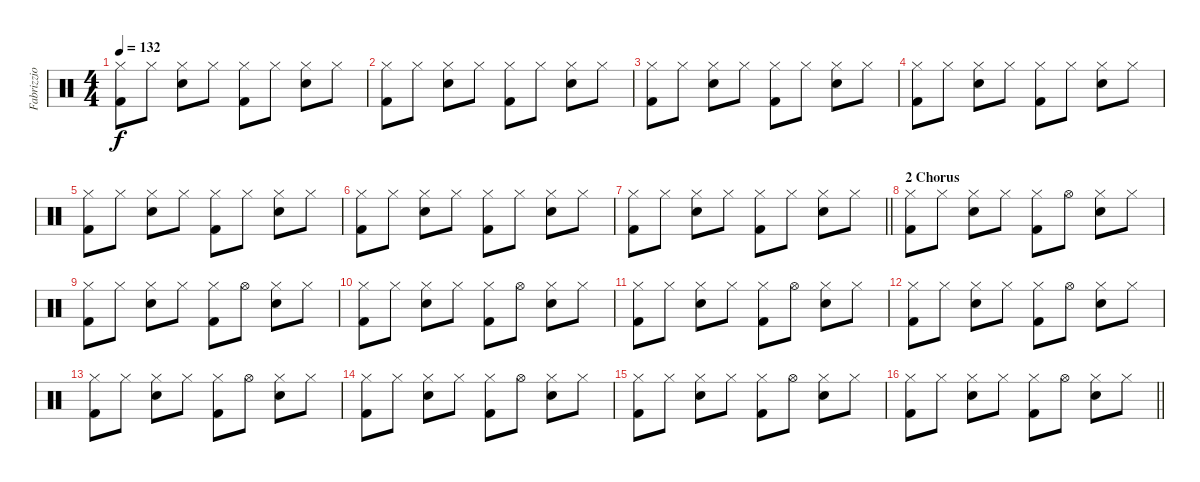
\track ("Fabrizzio" "Fabrizzio") {instrument percussion}
\staff {score}
\articulation defaults
\ts (4 4)
\tempo 132
\clef neutral
\ks c
("Hi-Hat (closed)" "Kick (hit) 2").8{dy f} "Hi-Hat (closed)".8 ("Hi-Hat (closed)" "Snare (hit) 2").8 "Hi-Hat (closed)".8 ("Hi-Hat (closed)" "Kick (hit) 2").8 "Hi-Hat (closed)".8 ("Hi-Hat (closed)" "Snare (hit) 2").8 "Hi-Hat (closed)".8 |
("Hi-Hat (closed)" "Kick (hit) 2").8 "Hi-Hat (closed)".8 ("Hi-Hat (closed)" "Snare (hit) 2").8 "Hi-Hat (closed)".8 ("Hi-Hat (closed)" "Kick (hit) 2").8 "Hi-Hat (closed)".8 ("Hi-Hat (closed)" "Snare (hit) 2").8 "Hi-Hat (closed)".8 |
("Hi-Hat (closed)" "Kick (hit) 2").8 "Hi-Hat (closed)".8 ("Hi-Hat (closed)" "Snare (hit) 2").8 "Hi-Hat (closed)".8 ("Hi-Hat (closed)" "Kick (hit) 2").8 "Hi-Hat (closed)".8 ("Hi-Hat (closed)" "Snare (hit) 2").8 "Hi-Hat (closed)".8 |
("Hi-Hat (closed)" "Kick (hit) 2").8 "Hi-Hat (closed)".8 ("Hi-Hat (closed)" "Snare (hit) 2").8 "Hi-Hat (closed)".8 ("Hi-Hat (closed)" "Kick (hit) 2").8 "Hi-Hat (closed)".8 ("Hi-Hat (closed)" "Snare (hit) 2").8 "Hi-Hat (closed)".8 |
("Hi-Hat (closed)" "Kick (hit) 2").8 "Hi-Hat (closed)".8 ("Hi-Hat (closed)" "Snare (hit) 2").8 "Hi-Hat (closed)".8 ("Hi-Hat (closed)" "Kick (hit) 2").8 "Hi-Hat (closed)".8 ("Hi-Hat (closed)" "Snare (hit) 2").8 "Hi-Hat (closed)".8 |
("Hi-Hat (closed)" "Kick (hit) 2").8 "Hi-Hat (closed)".8 ("Hi-Hat (closed)" "Snare (hit) 2").8 "Hi-Hat (closed)".8 ("Hi-Hat (closed)" "Kick (hit) 2").8 "Hi-Hat (closed)".8 ("Hi-Hat (closed)" "Snare (hit) 2").8 "Hi-Hat (closed)".8 |
\barLineRight lightlight
("Hi-Hat (closed)" "Kick (hit) 2").8 "Hi-Hat (closed)".8 ("Hi-Hat (closed)" "Snare (hit) 2").8 "Hi-Hat (closed)".8 ("Hi-Hat (closed)" "Kick (hit) 2").8 "Hi-Hat (closed)".8 ("Hi-Hat (closed)" "Snare (hit) 2").8 "Hi-Hat (closed)".8 |
\section ("" "2 Chorus")
("Hi-Hat (closed)" "Kick (hit) 2").8 "Hi-Hat (closed)".8 ("Hi-Hat (closed)" "Snare (hit) 2").8 "Hi-Hat (closed)".8 ("Hi-Hat (closed)" "Kick (hit) 2").8 "Hi-Hat (open)".8 ("Hi-Hat (closed)" "Snare (hit) 2").8 "Hi-Hat (closed)".8 |
("Hi-Hat (closed)" "Kick (hit) 2").8 "Hi-Hat (closed)".8 ("Hi-Hat (closed)" "Snare (hit) 2").8 "Hi-Hat (closed)".8 ("Hi-Hat (closed)" "Kick (hit) 2").8 "Hi-Hat (open)".8 ("Hi-Hat (closed)" "Snare (hit) 2").8 "Hi-Hat (closed)".8 |
("Hi-Hat (closed)" "Kick (hit) 2").8 "Hi-Hat (closed)".8 ("Hi-Hat (closed)" "Snare (hit) 2").8 "Hi-Hat (closed)".8 ("Hi-Hat (closed)" "Kick (hit) 2").8 "Hi-Hat (open)".8 ("Hi-Hat (closed)" "Snare (hit) 2").8 "Hi-Hat (closed)".8 |
("Hi-Hat (closed)" "Kick (hit) 2").8 "Hi-Hat (closed)".8 ("Hi-Hat (closed)" "Snare (hit) 2").8 "Hi-Hat (closed)".8 ("Hi-Hat (closed)" "Kick (hit) 2").8 "Hi-Hat (open)".8 ("Hi-Hat (closed)" "Snare (hit) 2").8 "Hi-Hat (closed)".8 |
("Hi-Hat (closed)" "Kick (hit) 2").8 "Hi-Hat (closed)".8 ("Hi-Hat (closed)" "Snare (hit) 2").8 "Hi-Hat (closed)".8 ("Hi-Hat (closed)" "Kick (hit) 2").8 "Hi-Hat (open)".8 ("Hi-Hat (closed)" "Snare (hit) 2").8 "Hi-Hat (closed)".8 |
("Hi-Hat (closed)" "Kick (hit) 2").8 "Hi-Hat (closed)".8 ("Hi-Hat (closed)" "Snare (hit) 2").8 "Hi-Hat (closed)".8 ("Hi-Hat (closed)" "Kick (hit) 2").8 "Hi-Hat (open)".8 ("Hi-Hat (closed)" "Snare (hit) 2").8 "Hi-Hat (closed)".8 |
("Hi-Hat (closed)" "Kick (hit) 2").8 "Hi-Hat (closed)".8 ("Hi-Hat (closed)" "Snare (hit) 2").8 "Hi-Hat (closed)".8 ("Hi-Hat (closed)" "Kick (hit) 2").8 "Hi-Hat (open)".8 ("Hi-Hat (closed)" "Snare (hit) 2").8 "Hi-Hat (closed)".8 |
("Hi-Hat (closed)" "Kick (hit) 2").8 "Hi-Hat (closed)".8 ("Hi-Hat (closed)" "Snare (hit) 2").8 "Hi-Hat (closed)".8 ("Hi-Hat (closed)" "Kick (hit) 2").8 "Hi-Hat (open)".8 ("Hi-Hat (closed)" "Snare (hit) 2").8 "Hi-Hat (closed)".8 |
\barLineRight lightlight
("Hi-Hat (closed)" "Kick (hit) 2").8 "Hi-Hat (closed)".8 ("Hi-Hat (closed)" "Snare (hit) 2").8 "Hi-Hat (closed)".8 ("Hi-Hat (closed)" "Kick (hit) 2").8 "Hi-Hat (open)".8 ("Hi-Hat (closed)" "Snare (hit) 2").8 "Hi-Hat (closed)".8
